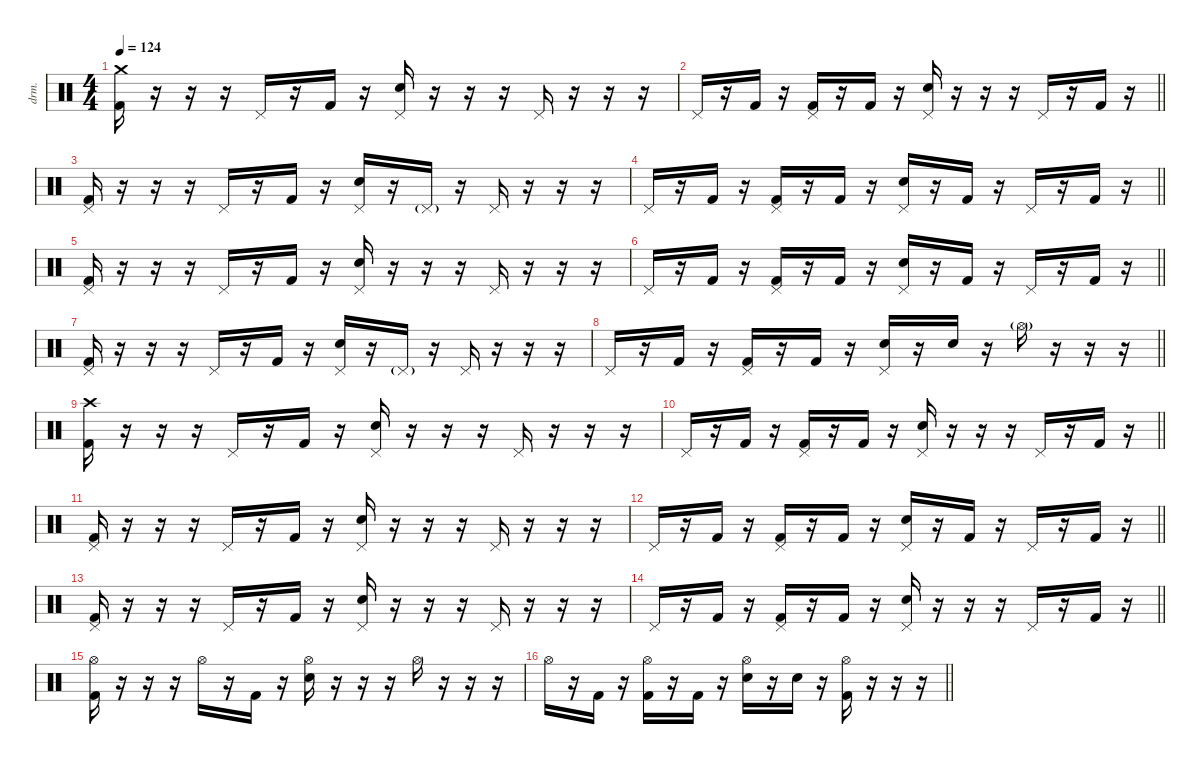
\defaultSystemsLayout 4
\hideDynamics
\bracketExtendMode nobrackets
\otherSystemsTrackNameOrientation horizontal
\track ("Percussion" "drm.") {instrument percussion}
\staff {score}
\articulation defaults
\ts (4 4)
\section ("" "")
\tempo 124
\clef neutral
\ks c
("Kick (hit) 2" "Crash medium (hit)").16{dy f beam Down} r.16{beam Down} r.16{beam Down} r.16{beam Down} "Pedal Hi-Hat (hit)".16{beam Up} r.16{beam Up} "Kick (hit) 2".16{beam Up} r.16{beam Up} ("Snare (hit) 2" "Pedal Hi-Hat (hit)").16{beam Up} r.16{beam Up} r.16{beam Up} r.16{beam Up} "Pedal Hi-Hat (hit)".16{beam Up} r.16{beam Up} r.16{beam Up} r.16{beam Up} |
\barLineRight lightlight "Pedal Hi-Hat (hit)".16{beam Up}
r.16{beam Up} "Kick (hit) 2".16{beam Up} r.16{beam Up} ("Kick (hit) 2" "Pedal Hi-Hat (hit)").16{beam Up} r.16{beam Up} "Kick (hit) 2".16{beam Up} r.16{beam Up} ("Snare (hit) 2" "Pedal Hi-Hat (hit)").16{beam Up} r.16{beam Up} r.16{beam Up} r.16{beam Up} "Pedal Hi-Hat (hit)".16{beam Up} r.16{beam Up} "Kick (hit) 2".16{beam Up} r.16{beam Up} |
("Kick (hit) 2" "Pedal Hi-Hat (hit)").16{beam Up} r.16{beam Up} r.16{beam Up} r.16{beam Up} "Pedal Hi-Hat (hit)".16{beam Up} r.16{beam Up} "Kick (hit) 2".16{beam Up} r.16{beam Up} ("Snare (hit) 2" "Pedal Hi-Hat (hit)").16{beam Up} r.16{beam Up} "Pedal Hi-Hat (hit)"{g}.16{dy mf beam Up} r.16{beam Up} "Pedal Hi-Hat (hit)".16{dy f beam Up} r.16{beam Up} r.16{beam Up} r.16{beam Up} |
\barLineRight lightlight "Pedal Hi-Hat (hit)".16{beam Up}
r.16{beam Up} "Kick (hit) 2".16{beam Up} r.16{beam Up} ("Kick (hit) 2" "Pedal Hi-Hat (hit)").16{beam Up} r.16{beam Up} "Kick (hit) 2".16{beam Up} r.16{beam Up} ("Snare (hit) 2" "Pedal Hi-Hat (hit)").16{beam Up} r.16{beam Up} "Kick (hit) 2".16{beam Up} r.16{beam Up} "Pedal Hi-Hat (hit)".16{beam Up} r.16{beam Up} "Kick (hit) 2".16{beam Up} r.16{beam Up} |
("Kick (hit) 2" "Pedal Hi-Hat (hit)").16{beam Up} r.16{beam Up} r.16{beam Up} r.16{beam Up} "Pedal Hi-Hat (hit)".16{beam Up} r.16{beam Up} "Kick (hit) 2".16{beam Up} r.16{beam Up} ("Snare (hit) 2" "Pedal Hi-Hat (hit)").16{beam Up} r.16{beam Up} r.16{beam Up} r.16{beam Up} "Pedal Hi-Hat (hit)".16{beam Up} r.16{beam Up} r.16{beam Up} r.16{beam Up} |
\barLineRight lightlight "Pedal Hi-Hat (hit)".16{beam Up}
r.16{beam Up} "Kick (hit) 2".16{beam Up} r.16{beam Up} ("Kick (hit) 2" "Pedal Hi-Hat (hit)").16{beam Up} r.16{beam Up} "Kick (hit) 2".16{beam Up} r.16{beam Up} ("Snare (hit) 2" "Pedal Hi-Hat (hit)").16{beam Up} r.16{beam Up} "Kick (hit) 2".16{beam Up} r.16{beam Up} "Pedal Hi-Hat (hit)".16{beam Up} r.16{beam Up} "Kick (hit) 2".16{beam Up} r.16{beam Up} |
("Kick (hit) 2" "Pedal Hi-Hat (hit)").16{beam Up} r.16{beam Up} r.16{beam Up} r.16{beam Up} "Pedal Hi-Hat (hit)".16{beam Up} r.16{beam Up} "Kick (hit) 2".16{beam Up} r.16{beam Up} ("Snare (hit) 2" "Pedal Hi-Hat (hit)").16{beam Up} r.16{beam Up} "Pedal Hi-Hat (hit)"{g}.16{dy mf beam Up} r.16{beam Up} "Pedal Hi-Hat (hit)".16{dy f beam Up} r.16{beam Up} r.16{beam Up} r.16{beam Up} |
\barLineRight lightlight "Pedal Hi-Hat (hit)".16{beam Up}
r.16{beam Up} "Kick (hit) 2".16{beam Up} r.16{beam Up} ("Kick (hit) 2" "Pedal Hi-Hat (hit)").16{beam Up} r.16{beam Up} "Kick (hit) 2".16{beam Up} r.16{beam Up} ("Snare (hit) 2" "Pedal Hi-Hat (hit)").16{beam Up} r.16{beam Up} "Snare (hit) 2".16{beam Up} r.16{beam Up} "Hi-Hat (open)"{g}.16{dy mf beam Down} r.16{beam Down} r.16{beam Down} r.16{beam Down} |
\section ("" "")
("Kick (hit) 2" "Crash high (hit)").16{dy f beam Down} r.16{beam Down} r.16{beam Down} r.16{beam Down} "Pedal Hi-Hat (hit)".16{beam Up} r.16{beam Up} "Kick (hit) 2".16{beam Up} r.16{beam Up} ("Snare (hit) 2" "Pedal Hi-Hat (hit)").16{beam Up} r.16{beam Up} r.16{beam Up} r.16{beam Up} "Pedal Hi-Hat (hit)".16{beam Up} r.16{beam Up} r.16{beam Up} r.16{beam Up} |
\barLineRight lightlight "Pedal Hi-Hat (hit)".16{beam Up}
r.16{beam Up} "Kick (hit) 2".16{beam Up} r.16{beam Up} ("Kick (hit) 2" "Pedal Hi-Hat (hit)").16{beam Up} r.16{beam Up} "Kick (hit) 2".16{beam Up} r.16{beam Up} ("Snare (hit) 2" "Pedal Hi-Hat (hit)").16{beam Up} r.16{beam Up} r.16{beam Up} r.16{beam Up} "Pedal Hi-Hat (hit)".16{beam Up} r.16{beam Up} "Kick (hit) 2".16{beam Up} r.16{beam Up} |
("Kick (hit) 2" "Pedal Hi-Hat (hit)").16{beam Up} r.16{beam Up} r.16{beam Up} r.16{beam Up} "Pedal Hi-Hat (hit)".16{beam Up} r.16{beam Up} "Kick (hit) 2".16{beam Up} r.16{beam Up} ("Snare (hit) 2" "Pedal Hi-Hat (hit)").16{beam Up} r.16{beam Up} r.16{beam Up} r.16{beam Up} "Pedal Hi-Hat (hit)".16{beam Up} r.16{beam Up} r.16{beam Up} r.16{beam Up} |
\barLineRight lightlight "Pedal Hi-Hat (hit)".16{beam Up}
r.16{beam Up} "Kick (hit) 2".16{beam Up} r.16{beam Up} ("Kick (hit) 2" "Pedal Hi-Hat (hit)").16{beam Up} r.16{beam Up} "Kick (hit) 2".16{beam Up} r.16{beam Up} ("Snare (hit) 2" "Pedal Hi-Hat (hit)").16{beam Up} r.16{beam Up} "Kick (hit) 2".16{beam Up} r.16{beam Up} "Pedal Hi-Hat (hit)".16{beam Up} r.16{beam Up} "Kick (hit) 2".16{beam Up} r.16{beam Up} |
("Kick (hit) 2" "Pedal Hi-Hat (hit)").16{beam Up} r.16{beam Up} r.16{beam Up} r.16{beam Up} "Pedal Hi-Hat (hit)".16{beam Up} r.16{beam Up} "Kick (hit) 2".16{beam Up} r.16{beam Up} ("Snare (hit) 2" "Pedal Hi-Hat (hit)").16{beam Up} r.16{beam Up} r.16{beam Up} r.16{beam Up} "Pedal Hi-Hat (hit)".16{beam Up} r.16{beam Up} r.16{beam Up} r.16{beam Up} |
\barLineRight lightlight "Pedal Hi-Hat (hit)".16{beam Up}
r.16{beam Up} "Kick (hit) 2".16{beam Up} r.16{beam Up} ("Kick (hit) 2" "Pedal Hi-Hat (hit)").16{beam Up} r.16{beam Up} "Kick (hit) 2".16{beam Up} r.16{beam Up} ("Snare (hit) 2" "Pedal Hi-Hat (hit)").16{beam Up} r.16{beam Up} r.16{beam Up} r.16{beam Up} "Pedal Hi-Hat (hit)".16{beam Up} r.16{beam Up} "Kick (hit) 2".16{beam Up} r.16{beam Up} |
("Kick (hit) 2" "Hi-Hat (open)").16{beam Down} r.16{beam Down} r.16{beam Down} r.16{beam Down} "Hi-Hat (open)".16{dy pp beam Down} r.16{beam Down} "Kick (hit) 2".16{dy f beam Down} r.16{beam Down} ("Snare (hit) 2" "Hi-Hat (open)").16{beam Down} r.16{beam Down} r.16{beam Down} r.16{beam Down} "Hi-Hat (open)".16{dy pp beam Down} r.16{beam Down} r.16{beam Down} r.16{beam Down} |
\barLineRight lightlight "Hi-Hat (open)".16{beam Down}
r.16{beam Down} "Kick (hit) 2".16{dy f beam Down} r.16{beam Down} ("Kick (hit) 2" "Hi-Hat (open)").16{beam Down} r.16{beam Down} "Kick (hit) 2".16{beam Down} r.16{beam Down} ("Snare (hit) 2" "Hi-Hat (open)").16{beam Down} r.16{beam Down} "Snare (hit) 2".16{beam Down} r.16{beam Down} ("Kick (hit) 2" "Hi-Hat (open)").16{beam Down} r.16{beam Down} r.16{beam Down} r.16{beam Down}
